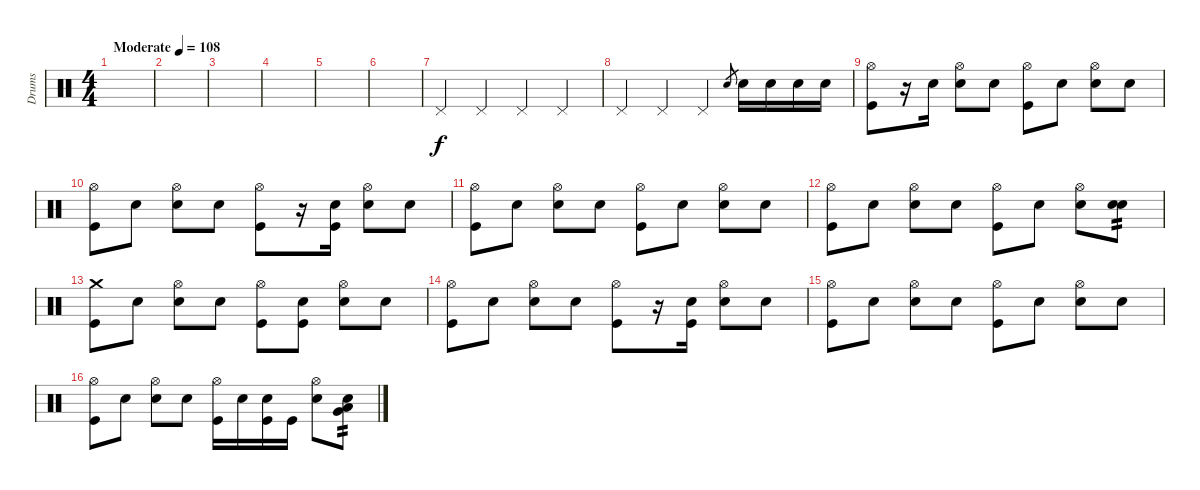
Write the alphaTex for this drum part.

\track ("Drums" "Drums") {instrument percussion}
\staff {score}
\articulation defaults
\ts (4 4)
\tempo (108 "Moderate")
\clef neutral
\ks c
|
|
|
|
|
|
"Pedal Hi-Hat (hit)".4 "Pedal Hi-Hat (hit)".4 "Pedal Hi-Hat (hit)".4 "Pedal Hi-Hat (hit)".4 |
"Pedal Hi-Hat (hit)".4 "Pedal Hi-Hat (hit)".4 "Pedal Hi-Hat (hit)".4 "Electric Snare (hit)".8{gr} "Electric Snare (hit)".16 "Electric Snare (hit)".16 "Electric Snare (hit)".16 "Electric Snare (hit)".16 |
("Hi-Hat (open)" "Kick (hit)").8 r.16 "Snare (hit)".16 ("Hi-Hat (open)" "Electric Snare (hit)").8 "Snare (hit)".8 ("Hi-Hat (open)" "Kick (hit)").8 "Snare (hit)".8 ("Hi-Hat (open)" "Electric Snare (hit)").8 "Snare (hit)".8 |
("Hi-Hat (open)" "Kick (hit)").8 "Snare (hit)".8 ("Hi-Hat (open)" "Electric Snare (hit)").8 "Snare (hit)".8 ("Hi-Hat (open)" "Kick (hit)").8 r.16 ("Snare (hit)" "Kick (hit)").16 ("Hi-Hat (open)" "Electric Snare (hit)").8 "Snare (hit)".8 |
("Hi-Hat (open)" "Kick (hit)").8 "Snare (hit)".8 ("Hi-Hat (open)" "Electric Snare (hit)").8 "Snare (hit)".8 ("Hi-Hat (open)" "Kick (hit)").8 "Snare (hit)".8 ("Hi-Hat (open)" "Electric Snare (hit)").8 "Snare (hit)".8 |
("Hi-Hat (open)" "Kick (hit)").8 "Snare (hit)".8 ("Hi-Hat (open)" "Electric Snare (hit)").8 "Snare (hit)".8 ("Hi-Hat (open)" "Kick (hit)").8 "Snare (hit)".8 ("Hi-Hat (open)" "Electric Snare (hit)").8 ("Snare (hit)" "Electric Snare (hit)").8{tp 2} |
("Crash medium (hit)" "Kick (hit)").8 "Snare (hit)".8 ("Hi-Hat (open)" "Electric Snare (hit)").8 "Snare (hit)".8 ("Hi-Hat (open)" "Kick (hit)").8 ("Snare (hit)" "Kick (hit)").8 ("Hi-Hat (open)" "Electric Snare (hit)").8 "Snare (hit)".8 |
("Hi-Hat (open)" "Kick (hit)").8 "Snare (hit)".8 ("Hi-Hat (open)" "Electric Snare (hit)").8 "Snare (hit)".8 ("Hi-Hat (open)" "Kick (hit)").8 r.16 ("Snare (hit)" "Kick (hit)").16 ("Hi-Hat (open)" "Electric Snare (hit)").8 "Snare (hit)".8 |
("Hi-Hat (open)" "Kick (hit)").8 "Snare (hit)".8 ("Hi-Hat (open)" "Electric Snare (hit)").8 "Snare (hit)".8 ("Hi-Hat (open)" "Kick (hit)").8 "Snare (hit)".8 ("Hi-Hat (open)" "Electric Snare (hit)").8 "Snare (hit)".8 |
("Hi-Hat (open)" "Kick (hit)").8 "Snare (hit)".8 ("Hi-Hat (open)" "Electric Snare (hit)").8 "Snare (hit)".8 ("Hi-Hat (open)" "Kick (hit)").16 "Electric Snare (hit)".16 ("Snare (hit)" "Kick (hit)").16 "Kick (hit)".16 ("Hi-Hat (open)" "Electric Snare (hit)").8 ("Snare (hit)" "Low Tom (hit)" "Very Low Tom (hit)").8{tp 2}
